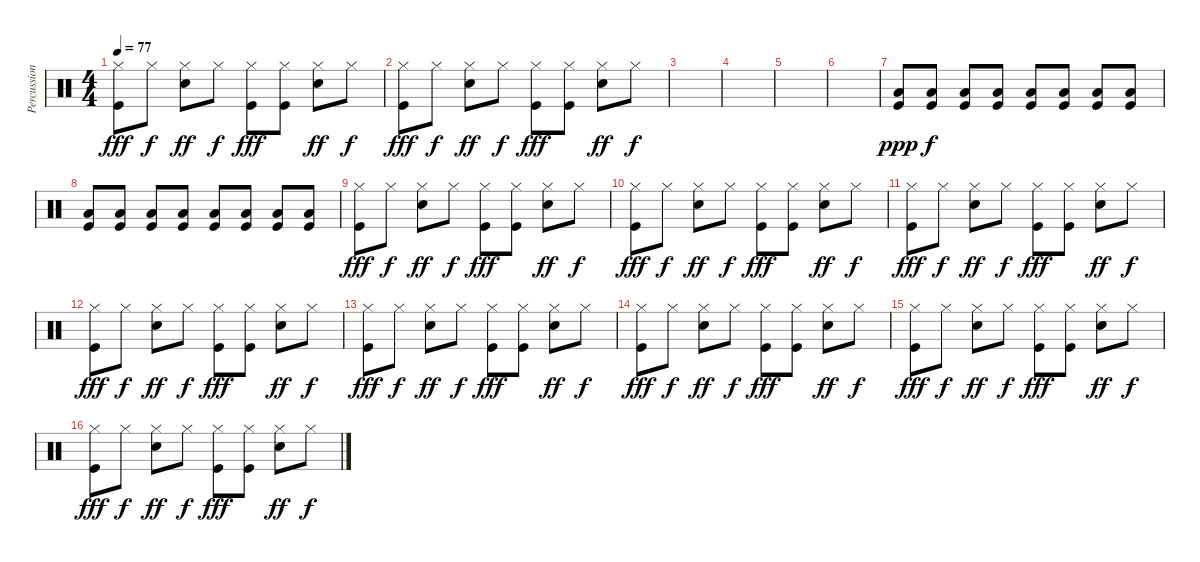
\track ("Percussion" "Percussion") {instrument percussion}
\staff {score}
\articulation defaults
\ts (4 4)
\tempo 77
\clef neutral
\ks c
("Hi-Hat (closed)" "Kick (hit)").8{dy fff} "Hi-Hat (closed)".8{dy f} ("Hi-Hat (closed)" "Electric Snare (hit)").8{dy ff} "Hi-Hat (closed)".8{dy f} ("Hi-Hat (closed)" "Kick (hit)").8{dy fff} ("Hi-Hat (closed)" "Kick (hit)").8 ("Hi-Hat (closed)" "Electric Snare (hit)").8{dy ff} "Hi-Hat (closed)".8{dy f} |
("Hi-Hat (closed)" "Kick (hit)").8{dy fff} "Hi-Hat (closed)".8{dy f} ("Hi-Hat (closed)" "Electric Snare (hit)").8{dy ff} "Hi-Hat (closed)".8{dy f} ("Hi-Hat (closed)" "Kick (hit)").8{dy fff} ("Hi-Hat (closed)" "Kick (hit)").8 ("Hi-Hat (closed)" "Electric Snare (hit)").8{dy ff} "Hi-Hat (closed)".8{dy f} |
|
|
|
|
("Low Tom (hit)" "Kick (hit)").8{dy ppp volume 13} ("Low Tom (hit)" "Kick (hit)").8{dy f} ("Low Tom (hit)" "Kick (hit)").8 ("Low Tom (hit)" "Kick (hit)").8 ("Low Tom (hit)" "Kick (hit)").8 ("Low Tom (hit)" "Kick (hit)").8 ("Low Tom (hit)" "Kick (hit)").8 ("Low Tom (hit)" "Kick (hit)").8 |
("Low Tom (hit)" "Kick (hit)").8 ("Low Tom (hit)" "Kick (hit)").8 ("Low Tom (hit)" "Kick (hit)").8 ("Low Tom (hit)" "Kick (hit)").8 ("Low Tom (hit)" "Kick (hit)").8 ("Low Tom (hit)" "Kick (hit)").8 ("Low Tom (hit)" "Kick (hit)").8 ("Low Tom (hit)" "Kick (hit)").8 |
("Hi-Hat (closed)" "Kick (hit)").8{dy fff} "Hi-Hat (closed)".8{dy f} ("Hi-Hat (closed)" "Electric Snare (hit)").8{dy ff} "Hi-Hat (closed)".8{dy f} ("Hi-Hat (closed)" "Kick (hit)").8{dy fff} ("Hi-Hat (closed)" "Kick (hit)").8 ("Hi-Hat (closed)" "Electric Snare (hit)").8{dy ff} "Hi-Hat (closed)".8{dy f} |
("Hi-Hat (closed)" "Kick (hit)").8{dy fff} "Hi-Hat (closed)".8{dy f} ("Hi-Hat (closed)" "Electric Snare (hit)").8{dy ff} "Hi-Hat (closed)".8{dy f} ("Hi-Hat (closed)" "Kick (hit)").8{dy fff} ("Hi-Hat (closed)" "Kick (hit)").8 ("Hi-Hat (closed)" "Electric Snare (hit)").8{dy ff} "Hi-Hat (closed)".8{dy f} |
("Hi-Hat (closed)" "Kick (hit)").8{dy fff} "Hi-Hat (closed)".8{dy f} ("Hi-Hat (closed)" "Electric Snare (hit)").8{dy ff} "Hi-Hat (closed)".8{dy f} ("Hi-Hat (closed)" "Kick (hit)").8{dy fff} ("Hi-Hat (closed)" "Kick (hit)").8 ("Hi-Hat (closed)" "Electric Snare (hit)").8{dy ff} "Hi-Hat (closed)".8{dy f} |
("Hi-Hat (closed)" "Kick (hit)").8{dy fff} "Hi-Hat (closed)".8{dy f} ("Hi-Hat (closed)" "Electric Snare (hit)").8{dy ff} "Hi-Hat (closed)".8{dy f} ("Hi-Hat (closed)" "Kick (hit)").8{dy fff} ("Hi-Hat (closed)" "Kick (hit)").8 ("Hi-Hat (closed)" "Electric Snare (hit)").8{dy ff} "Hi-Hat (closed)".8{dy f} |
("Hi-Hat (closed)" "Kick (hit)").8{dy fff} "Hi-Hat (closed)".8{dy f} ("Hi-Hat (closed)" "Electric Snare (hit)").8{dy ff} "Hi-Hat (closed)".8{dy f} ("Hi-Hat (closed)" "Kick (hit)").8{dy fff} ("Hi-Hat (closed)" "Kick (hit)").8 ("Hi-Hat (closed)" "Electric Snare (hit)").8{dy ff} "Hi-Hat (closed)".8{dy f} |
("Hi-Hat (closed)" "Kick (hit)").8{dy fff} "Hi-Hat (closed)".8{dy f} ("Hi-Hat (closed)" "Electric Snare (hit)").8{dy ff} "Hi-Hat (closed)".8{dy f} ("Hi-Hat (closed)" "Kick (hit)").8{dy fff} ("Hi-Hat (closed)" "Kick (hit)").8 ("Hi-Hat (closed)" "Electric Snare (hit)").8{dy ff} "Hi-Hat (closed)".8{dy f} |
("Hi-Hat (closed)" "Kick (hit)").8{dy fff} "Hi-Hat (closed)".8{dy f} ("Hi-Hat (closed)" "Electric Snare (hit)").8{dy ff} "Hi-Hat (closed)".8{dy f} ("Hi-Hat (closed)" "Kick (hit)").8{dy fff} ("Hi-Hat (closed)" "Kick (hit)").8 ("Hi-Hat (closed)" "Electric Snare (hit)").8{dy ff} "Hi-Hat (closed)".8{dy f} |
("Hi-Hat (closed)" "Kick (hit)").8{dy fff} "Hi-Hat (closed)".8{dy f} ("Hi-Hat (closed)" "Electric Snare (hit)").8{dy ff} "Hi-Hat (closed)".8{dy f} ("Hi-Hat (closed)" "Kick (hit)").8{dy fff} ("Hi-Hat (closed)" "Kick (hit)").8 ("Hi-Hat (closed)" "Electric Snare (hit)").8{dy ff} "Hi-Hat (closed)".8{dy f}
